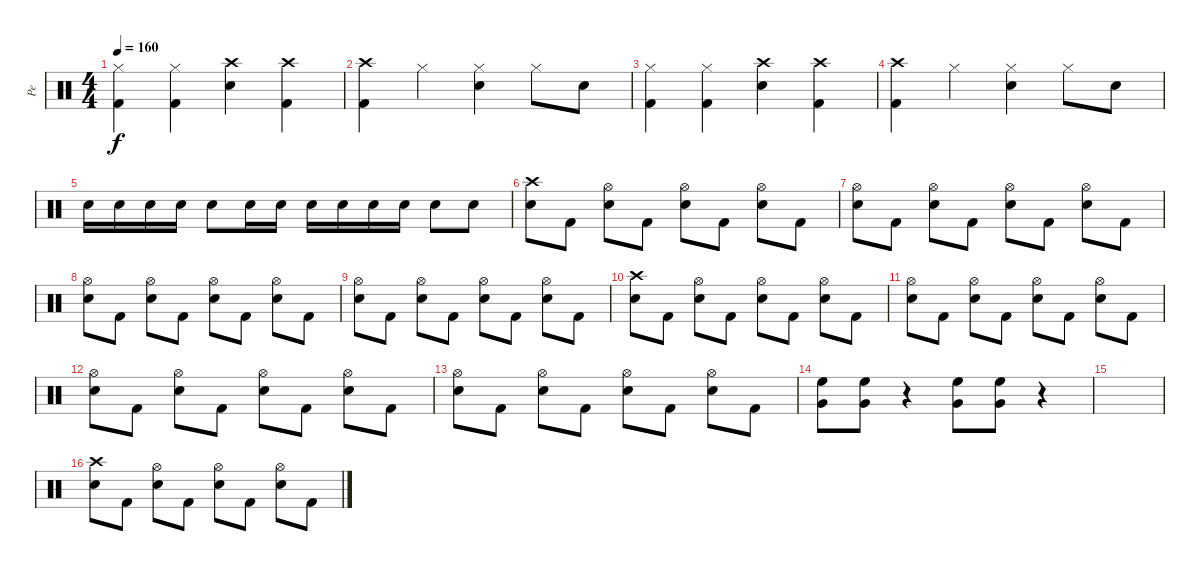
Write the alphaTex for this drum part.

\track ("Pe" "Pe") {instrument percussion}
\staff {score}
\articulation defaults
\ts (4 4)
\tempo 160
\clef neutral
\ks c
("Hi-Hat (closed)" "Kick (hit) 2").4{dy f} ("Hi-Hat (closed)" "Kick (hit) 2").4 ("Crash high (hit)" "Snare (hit) 2").4 ("Crash high (hit)" "Kick (hit) 2").4 |
("Crash high (hit)" "Kick (hit) 2").4 "Hi-Hat (closed)".4 ("Hi-Hat (closed)" "Snare (hit) 2").4 "Hi-Hat (closed)".8 "Snare (hit) 2".8 |
("Hi-Hat (closed)" "Kick (hit) 2").4 ("Hi-Hat (closed)" "Kick (hit) 2").4 ("Crash high (hit)" "Snare (hit) 2").4 ("Crash high (hit)" "Kick (hit) 2").4 |
("Crash high (hit)" "Kick (hit) 2").4 "Hi-Hat (closed)".4 ("Hi-Hat (closed)" "Snare (hit) 2").4 "Hi-Hat (closed)".8 "Snare (hit) 2".8 |
"Snare (hit) 2".16 "Snare (hit) 2".16 "Snare (hit) 2".16 "Snare (hit) 2".16 "Snare (hit) 2".8 "Snare (hit) 2".16 "Snare (hit) 2".16 "Snare (hit) 2".16 "Snare (hit) 2".16 "Snare (hit) 2".16 "Snare (hit) 2".16 "Snare (hit) 2".8 "Snare (hit) 2".8 |
("Crash high (hit)" "Snare (hit) 2").8 "Kick (hit) 2".8 ("Hi-Hat (open)" "Snare (hit) 2").8 "Kick (hit) 2".8 ("Hi-Hat (open)" "Snare (hit) 2").8 "Kick (hit) 2".8 ("Hi-Hat (open)" "Snare (hit) 2").8 "Kick (hit) 2".8 |
("Hi-Hat (open)" "Snare (hit) 2").8 "Kick (hit) 2".8 ("Hi-Hat (open)" "Snare (hit) 2").8 "Kick (hit) 2".8 ("Hi-Hat (open)" "Snare (hit) 2").8 "Kick (hit) 2".8 ("Hi-Hat (open)" "Snare (hit) 2").8 "Kick (hit) 2".8 |
("Hi-Hat (open)" "Snare (hit) 2").8 "Kick (hit) 2".8 ("Hi-Hat (open)" "Snare (hit) 2").8 "Kick (hit) 2".8 ("Hi-Hat (open)" "Snare (hit) 2").8 "Kick (hit) 2".8 ("Hi-Hat (open)" "Snare (hit) 2").8 "Kick (hit) 2".8 |
("Hi-Hat (open)" "Snare (hit) 2").8 "Kick (hit) 2".8 ("Hi-Hat (open)" "Snare (hit) 2").8 "Kick (hit) 2".8 ("Hi-Hat (open)" "Snare (hit) 2").8 "Kick (hit) 2".8 ("Hi-Hat (open)" "Snare (hit) 2").8 "Kick (hit) 2".8 |
("Crash high (hit)" "Snare (hit) 2").8 "Kick (hit) 2".8 ("Hi-Hat (open)" "Snare (hit) 2").8 "Kick (hit) 2".8 ("Hi-Hat (open)" "Snare (hit) 2").8 "Kick (hit) 2".8 ("Hi-Hat (open)" "Snare (hit) 2").8 "Kick (hit) 2".8 |
("Hi-Hat (open)" "Snare (hit) 2").8 "Kick (hit) 2".8 ("Hi-Hat (open)" "Snare (hit) 2").8 "Kick (hit) 2".8 ("Hi-Hat (open)" "Snare (hit) 2").8 "Kick (hit) 2".8 ("Hi-Hat (open)" "Snare (hit) 2").8 "Kick (hit) 2".8 |
("Hi-Hat (open)" "Snare (hit) 2").8 "Kick (hit) 2".8 ("Hi-Hat (open)" "Snare (hit) 2").8 "Kick (hit) 2".8 ("Hi-Hat (open)" "Snare (hit) 2").8 "Kick (hit) 2".8 ("Hi-Hat (open)" "Snare (hit) 2").8 "Kick (hit) 2".8 |
("Hi-Hat (open)" "Snare (hit) 2").8 "Kick (hit) 2".8 ("Hi-Hat (open)" "Snare (hit) 2").8 "Kick (hit) 2".8 ("Hi-Hat (open)" "Snare (hit) 2").8 "Kick (hit) 2".8 ("Hi-Hat (open)" "Snare (hit) 2").8 "Kick (hit) 2".8 |
("Very Low Tom (hit)" "High Floor Tom (hit)").8 ("Very Low Tom (hit)" "High Floor Tom (hit)").8 r.4 ("Very Low Tom (hit)" "High Floor Tom (hit)").8 ("Very Low Tom (hit)" "High Floor Tom (hit)").8 r.4 |
|
("Crash high (hit)" "Snare (hit) 2").8 "Kick (hit) 2".8 ("Hi-Hat (open)" "Snare (hit) 2").8 "Kick (hit) 2".8 ("Hi-Hat (open)" "Snare (hit) 2").8 "Kick (hit) 2".8 ("Hi-Hat (open)" "Snare (hit) 2").8 "Kick (hit) 2".8
